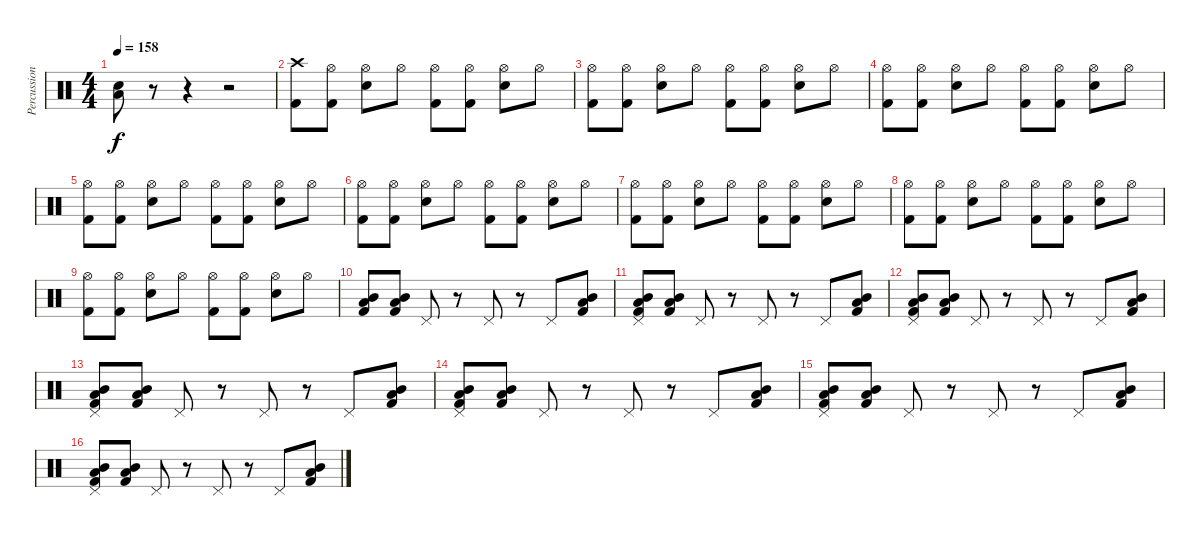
\track ("Percussion" "Percussion") {instrument percussion}
\staff {score}
\articulation defaults
\ts (4 4)
\tempo 158
\clef neutral
\ks c
("Electric Snare (hit)" "Low Floor Tom (hit)").8{dy f} r.8 r.4 r.2 |
("Crash high (hit)" "Kick (hit) 2").8 ("Hi-Hat (open)" "Kick (hit) 2").8 ("Hi-Hat (open)" "Electric Snare (hit)").8 "Hi-Hat (open)".8 ("Hi-Hat (open)" "Kick (hit) 2").8 ("Hi-Hat (open)" "Kick (hit) 2").8 ("Hi-Hat (open)" "Electric Snare (hit)").8 "Hi-Hat (open)".8 |
("Hi-Hat (open)" "Kick (hit) 2").8 ("Hi-Hat (open)" "Kick (hit) 2").8 ("Hi-Hat (open)" "Electric Snare (hit)").8 "Hi-Hat (open)".8 ("Hi-Hat (open)" "Kick (hit) 2").8 ("Hi-Hat (open)" "Kick (hit) 2").8 ("Hi-Hat (open)" "Electric Snare (hit)").8 "Hi-Hat (open)".8 |
("Hi-Hat (open)" "Kick (hit) 2").8 ("Hi-Hat (open)" "Kick (hit) 2").8 ("Hi-Hat (open)" "Electric Snare (hit)").8 "Hi-Hat (open)".8 ("Hi-Hat (open)" "Kick (hit) 2").8 ("Hi-Hat (open)" "Kick (hit) 2").8 ("Hi-Hat (open)" "Electric Snare (hit)").8 "Hi-Hat (open)".8 |
("Hi-Hat (open)" "Kick (hit) 2").8 ("Hi-Hat (open)" "Kick (hit) 2").8 ("Hi-Hat (open)" "Electric Snare (hit)").8 "Hi-Hat (open)".8 ("Hi-Hat (open)" "Kick (hit) 2").8 ("Hi-Hat (open)" "Kick (hit) 2").8 ("Hi-Hat (open)" "Electric Snare (hit)").8 "Hi-Hat (open)".8 |
("Hi-Hat (open)" "Kick (hit) 2").8 ("Hi-Hat (open)" "Kick (hit) 2").8 ("Hi-Hat (open)" "Electric Snare (hit)").8 "Hi-Hat (open)".8 ("Hi-Hat (open)" "Kick (hit) 2").8 ("Hi-Hat (open)" "Kick (hit) 2").8 ("Hi-Hat (open)" "Electric Snare (hit)").8 "Hi-Hat (open)".8 |
("Hi-Hat (open)" "Kick (hit) 2").8 ("Hi-Hat (open)" "Kick (hit) 2").8 ("Hi-Hat (open)" "Electric Snare (hit)").8 "Hi-Hat (open)".8 ("Hi-Hat (open)" "Kick (hit) 2").8 ("Hi-Hat (open)" "Kick (hit) 2").8 ("Hi-Hat (open)" "Electric Snare (hit)").8 "Hi-Hat (open)".8 |
("Hi-Hat (open)" "Kick (hit) 2").8 ("Hi-Hat (open)" "Kick (hit) 2").8 ("Hi-Hat (open)" "Electric Snare (hit)").8 "Hi-Hat (open)".8 ("Hi-Hat (open)" "Kick (hit) 2").8 ("Hi-Hat (open)" "Kick (hit) 2").8 ("Hi-Hat (open)" "Electric Snare (hit)").8 "Hi-Hat (open)".8 |
("Hi-Hat (open)" "Kick (hit) 2").8 ("Hi-Hat (open)" "Kick (hit) 2").8 ("Hi-Hat (open)" "Electric Snare (hit)").8 "Hi-Hat (open)".8 ("Hi-Hat (open)" "Kick (hit) 2").8 ("Hi-Hat (open)" "Kick (hit) 2").8 ("Hi-Hat (open)" "Electric Snare (hit)").8 "Hi-Hat (open)".8 |
("Mid Tom (hit)" "Low Floor Tom (hit)" "Kick (hit) 2").8 ("Mid Tom (hit)" "Low Floor Tom (hit)" "Kick (hit) 2").8 "Pedal Hi-Hat (hit)".8 r.8 "Pedal Hi-Hat (hit)".8 r.8 "Pedal Hi-Hat (hit)".8 ("Mid Tom (hit)" "Low Floor Tom (hit)" "Kick (hit) 2").8 |
("Pedal Hi-Hat (hit)" "Mid Tom (hit)" "Low Floor Tom (hit)" "Kick (hit) 2").8 ("Mid Tom (hit)" "Low Floor Tom (hit)" "Kick (hit) 2").8 "Pedal Hi-Hat (hit)".8 r.8 "Pedal Hi-Hat (hit)".8 r.8 "Pedal Hi-Hat (hit)".8 ("Mid Tom (hit)" "Low Floor Tom (hit)" "Kick (hit) 2").8 |
("Pedal Hi-Hat (hit)" "Mid Tom (hit)" "Low Floor Tom (hit)" "Kick (hit) 2").8 ("Mid Tom (hit)" "Low Floor Tom (hit)" "Kick (hit) 2").8 "Pedal Hi-Hat (hit)".8 r.8 "Pedal Hi-Hat (hit)".8 r.8 "Pedal Hi-Hat (hit)".8 ("Mid Tom (hit)" "Low Floor Tom (hit)" "Kick (hit) 2").8 |
("Pedal Hi-Hat (hit)" "Mid Tom (hit)" "Low Floor Tom (hit)" "Kick (hit) 2").8 ("Mid Tom (hit)" "Low Floor Tom (hit)" "Kick (hit) 2").8 "Pedal Hi-Hat (hit)".8 r.8 "Pedal Hi-Hat (hit)".8 r.8 "Pedal Hi-Hat (hit)".8 ("Mid Tom (hit)" "Low Floor Tom (hit)" "Kick (hit) 2").8 |
("Pedal Hi-Hat (hit)" "Mid Tom (hit)" "Low Floor Tom (hit)" "Kick (hit) 2").8 ("Mid Tom (hit)" "Low Floor Tom (hit)" "Kick (hit) 2").8 "Pedal Hi-Hat (hit)".8 r.8 "Pedal Hi-Hat (hit)".8 r.8 "Pedal Hi-Hat (hit)".8 ("Mid Tom (hit)" "Low Floor Tom (hit)" "Kick (hit) 2").8 |
("Pedal Hi-Hat (hit)" "Mid Tom (hit)" "Low Floor Tom (hit)" "Kick (hit) 2").8 ("Mid Tom (hit)" "Low Floor Tom (hit)" "Kick (hit) 2").8 "Pedal Hi-Hat (hit)".8 r.8 "Pedal Hi-Hat (hit)".8 r.8 "Pedal Hi-Hat (hit)".8 ("Mid Tom (hit)" "Low Floor Tom (hit)" "Kick (hit) 2").8 |
("Pedal Hi-Hat (hit)" "Mid Tom (hit)" "Low Floor Tom (hit)" "Kick (hit) 2").8 ("Mid Tom (hit)" "Low Floor Tom (hit)" "Kick (hit) 2").8 "Pedal Hi-Hat (hit)".8 r.8 "Pedal Hi-Hat (hit)".8 r.8 "Pedal Hi-Hat (hit)".8 ("Mid Tom (hit)" "Low Floor Tom (hit)" "Kick (hit) 2").8
